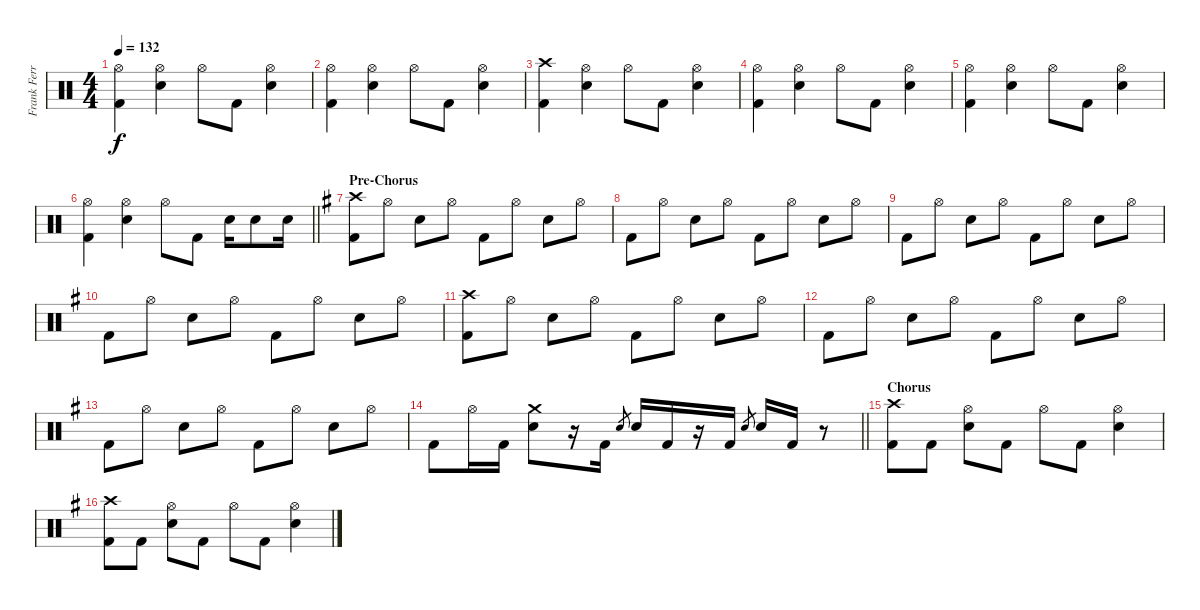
\track ("Frank Ferrer" "Frank Ferr") {instrument percussion}
\staff {score}
\articulation defaults
\ts (4 4)
\tempo 132
\clef neutral
\ks c
("Hi-Hat (open)" "Kick (hit) 2").4{dy f} ("Hi-Hat (open)" "Electric Snare (hit)").4 "Hi-Hat (open)".8 "Kick (hit) 2".8 ("Hi-Hat (open)" "Electric Snare (hit)").4 |
("Hi-Hat (open)" "Kick (hit) 2").4 ("Hi-Hat (open)" "Electric Snare (hit)").4 "Hi-Hat (open)".8 "Kick (hit) 2".8 ("Hi-Hat (open)" "Electric Snare (hit)").4 |
("Crash high (hit)" "Kick (hit) 2").4 ("Hi-Hat (open)" "Electric Snare (hit)").4 "Hi-Hat (open)".8 "Kick (hit) 2".8 ("Hi-Hat (open)" "Electric Snare (hit)").4 |
("Hi-Hat (open)" "Kick (hit) 2").4 ("Hi-Hat (open)" "Electric Snare (hit)").4 "Hi-Hat (open)".8 "Kick (hit) 2".8 ("Hi-Hat (open)" "Electric Snare (hit)").4 |
("Hi-Hat (open)" "Kick (hit) 2").4 ("Hi-Hat (open)" "Electric Snare (hit)").4 "Hi-Hat (open)".8 "Kick (hit) 2".8 ("Hi-Hat (open)" "Electric Snare (hit)").4 |
\barLineRight lightlight
("Hi-Hat (open)" "Kick (hit) 2").4 ("Hi-Hat (open)" "Electric Snare (hit)").4 "Hi-Hat (open)".8 "Kick (hit) 2".8 "Electric Snare (hit)".16 "Electric Snare (hit)".8 "Electric Snare (hit)".16 |
\section ("" "Pre-Chorus")
\ks g
("Crash high (hit)" "Kick (hit) 2").8 "Hi-Hat (open)".8 "Electric Snare (hit)".8 "Hi-Hat (open)".8 "Kick (hit) 2".8 "Hi-Hat (open)".8 "Electric Snare (hit)".8 "Hi-Hat (open)".8 |
"Kick (hit) 2".8 "Hi-Hat (open)".8 "Electric Snare (hit)".8 "Hi-Hat (open)".8 "Kick (hit) 2".8 "Hi-Hat (open)".8 "Electric Snare (hit)".8 "Hi-Hat (open)".8 |
"Kick (hit) 2".8 "Hi-Hat (open)".8 "Electric Snare (hit)".8 "Hi-Hat (open)".8 "Kick (hit) 2".8 "Hi-Hat (open)".8 "Electric Snare (hit)".8 "Hi-Hat (open)".8 |
"Kick (hit) 2".8 "Hi-Hat (open)".8 "Electric Snare (hit)".8 "Hi-Hat (open)".8 "Kick (hit) 2".8 "Hi-Hat (open)".8 "Electric Snare (hit)".8 "Hi-Hat (open)".8 |
("Crash high (hit)" "Kick (hit) 2").8 "Hi-Hat (open)".8 "Electric Snare (hit)".8 "Hi-Hat (open)".8 "Kick (hit) 2".8 "Hi-Hat (open)".8 "Electric Snare (hit)".8 "Hi-Hat (open)".8 |
"Kick (hit) 2".8 "Hi-Hat (open)".8 "Electric Snare (hit)".8 "Hi-Hat (open)".8 "Kick (hit) 2".8 "Hi-Hat (open)".8 "Electric Snare (hit)".8 "Hi-Hat (open)".8 |
"Kick (hit) 2".8 "Hi-Hat (open)".8 "Electric Snare (hit)".8 "Hi-Hat (open)".8 "Kick (hit) 2".8 "Hi-Hat (open)".8 "Electric Snare (hit)".8 "Hi-Hat (open)".8 |
\barLineRight lightlight "Kick (hit) 2".8 "Hi-Hat (open)".16 "Kick (hit) 2".16
("Crash medium (hit)" "Electric Snare (hit)").8 r.16 "Kick (hit) 2".16 "Electric Snare (hit)".8{gr} "Electric Snare (hit)".16 "Kick (hit) 2".16 r.16 "Kick (hit) 2".16 "Electric Snare (hit)".8{gr} "Electric Snare (hit)".16 "Kick (hit) 2".16 r.8 |
\section ("" "Chorus")
("Crash high (hit)" "Kick (hit) 2").8 "Kick (hit) 2".8 ("Hi-Hat (open)" "Electric Snare (hit)").8 "Kick (hit) 2".8 "Hi-Hat (open)".8 "Kick (hit) 2".8 ("Hi-Hat (open)" "Electric Snare (hit)").4 |
("Crash high (hit)" "Kick (hit) 2").8 "Kick (hit) 2".8 ("Hi-Hat (open)" "Electric Snare (hit)").8 "Kick (hit) 2".8 "Hi-Hat (open)".8 "Kick (hit) 2".8 ("Hi-Hat (open)" "Electric Snare (hit)").4
